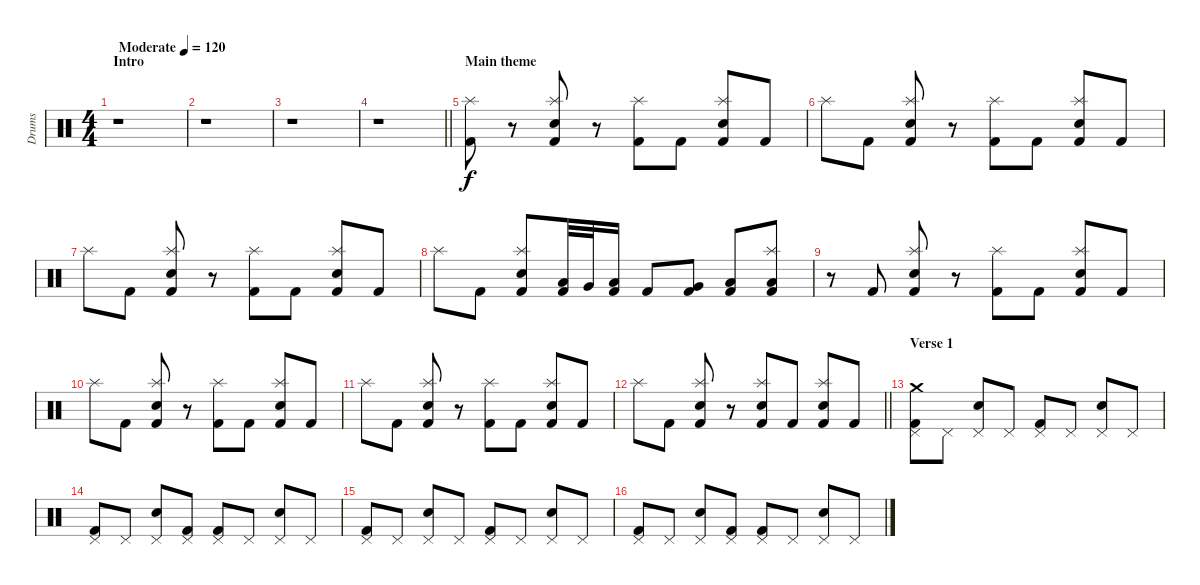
\track ("Drums" "Drums") {instrument percussion}
\staff {score}
\articulation defaults
\ts (4 4)
\section ("" "Intro")
\tempo (120 "Moderate")
\clef neutral
\ks c
r.1{dy f} |
r.1 |
r.1 |
\barLineRight lightlight
r.1 |
\section ("" "Main theme")
("Kick (hit) 2" "Splash (hit)").8 r.8 ("Splash (hit)" "Snare (hit) 2" "Kick (hit) 2").8 r.8 ("Splash (hit)" "Kick (hit) 2").8 "Kick (hit) 2".8 ("Splash (hit)" "Kick (hit) 2" "Snare (hit) 2").8 "Kick (hit) 2".8 |
"Splash (hit)".8 "Kick (hit) 2".8 ("Splash (hit)" "Snare (hit) 2" "Kick (hit) 2").8 r.8 ("Kick (hit) 2" "Splash (hit)").8 "Kick (hit) 2".8 ("Splash (hit)" "Kick (hit) 2" "Snare (hit) 2").8 "Kick (hit) 2".8 |
"Splash (hit)".8 "Kick (hit) 2".8 ("Splash (hit)" "Snare (hit) 2" "Kick (hit) 2").8 r.8 ("Kick (hit) 2" "Splash (hit)").8 "Kick (hit) 2".8 ("Splash (hit)" "Kick (hit) 2" "Snare (hit) 2").8 "Kick (hit) 2".8 |
"Splash (hit)".8 "Kick (hit) 2".8 ("Kick (hit) 2" "Snare (hit) 2" "Splash (hit)").8 ("Low Floor Tom (hit)" "Kick (hit) 2").32 "Very Low Tom (hit)".32 ("Low Tom (hit)" "Kick (hit) 2").16 "Kick (hit) 2".8 ("Very Low Tom (hit)" "Kick (hit) 2").8 ("Low Floor Tom (hit)" "Kick (hit) 2").8 ("Kick (hit) 2" "Low Floor Tom (hit)" "Splash (hit)").8 |
r.8 "Kick (hit) 2".8 ("Kick (hit) 2" "Snare (hit) 2" "Splash (hit)").8 r.8 ("Splash (hit)" "Kick (hit) 2").8 "Kick (hit) 2".8 ("Splash (hit)" "Snare (hit) 2" "Kick (hit) 2").8 "Kick (hit) 2".8 |
"Splash (hit)".8 "Kick (hit) 2".8 ("Snare (hit) 2" "Kick (hit) 2" "Splash (hit)").8 r.8 ("Splash (hit)" "Kick (hit) 2").8 "Kick (hit) 2".8 ("Splash (hit)" "Kick (hit) 2" "Snare (hit) 2").8 "Kick (hit) 2".8 |
"Splash (hit)".8 "Kick (hit) 2".8 ("Splash (hit)" "Snare (hit) 2" "Kick (hit) 2").8 r.8 ("Splash (hit)" "Kick (hit) 2").8 "Kick (hit) 2".8 ("Splash (hit)" "Snare (hit) 2" "Kick (hit) 2").8 "Kick (hit) 2".8 |
\barLineRight lightlight "Splash (hit)".8 "Kick (hit) 2".8
("Snare (hit) 2" "Kick (hit) 2" "Splash (hit)").8 r.8 ("Kick (hit) 2" "Splash (hit)" "Snare (hit) 2").8 "Kick (hit) 2".8 ("Snare (hit) 2" "Kick (hit) 2" "Splash (hit)").8 "Kick (hit) 2".8 |
\section ("" "Verse 1")
("Kick (hit) 2" "Pedal Hi-Hat (hit)" "Crash medium (hit)").8 "Pedal Hi-Hat (hit)".8 ("Snare (hit) 2" "Pedal Hi-Hat (hit)").8 "Pedal Hi-Hat (hit)".8 ("Kick (hit) 2" "Pedal Hi-Hat (hit)").8 "Pedal Hi-Hat (hit)".8 ("Snare (hit) 2" "Pedal Hi-Hat (hit)").8 "Pedal Hi-Hat (hit)".8 |
("Kick (hit) 2" "Pedal Hi-Hat (hit)").8 "Pedal Hi-Hat (hit)".8 ("Snare (hit) 2" "Pedal Hi-Hat (hit)").8 ("Kick (hit) 2" "Pedal Hi-Hat (hit)").8 ("Kick (hit) 2" "Pedal Hi-Hat (hit)").8 "Pedal Hi-Hat (hit)".8 ("Snare (hit) 2" "Pedal Hi-Hat (hit)").8 "Pedal Hi-Hat (hit)".8 |
("Kick (hit) 2" "Pedal Hi-Hat (hit)").8 "Pedal Hi-Hat (hit)".8 ("Snare (hit) 2" "Pedal Hi-Hat (hit)").8 "Pedal Hi-Hat (hit)".8 ("Kick (hit) 2" "Pedal Hi-Hat (hit)").8 "Pedal Hi-Hat (hit)".8 ("Snare (hit) 2" "Pedal Hi-Hat (hit)").8 "Pedal Hi-Hat (hit)".8 |
("Kick (hit) 2" "Pedal Hi-Hat (hit)").8 "Pedal Hi-Hat (hit)".8 ("Snare (hit) 2" "Pedal Hi-Hat (hit)").8 ("Pedal Hi-Hat (hit)" "Kick (hit) 2").8 ("Kick (hit) 2" "Pedal Hi-Hat (hit)").8 "Pedal Hi-Hat (hit)".8 ("Snare (hit) 2" "Pedal Hi-Hat (hit)").8 "Pedal Hi-Hat (hit)".8
